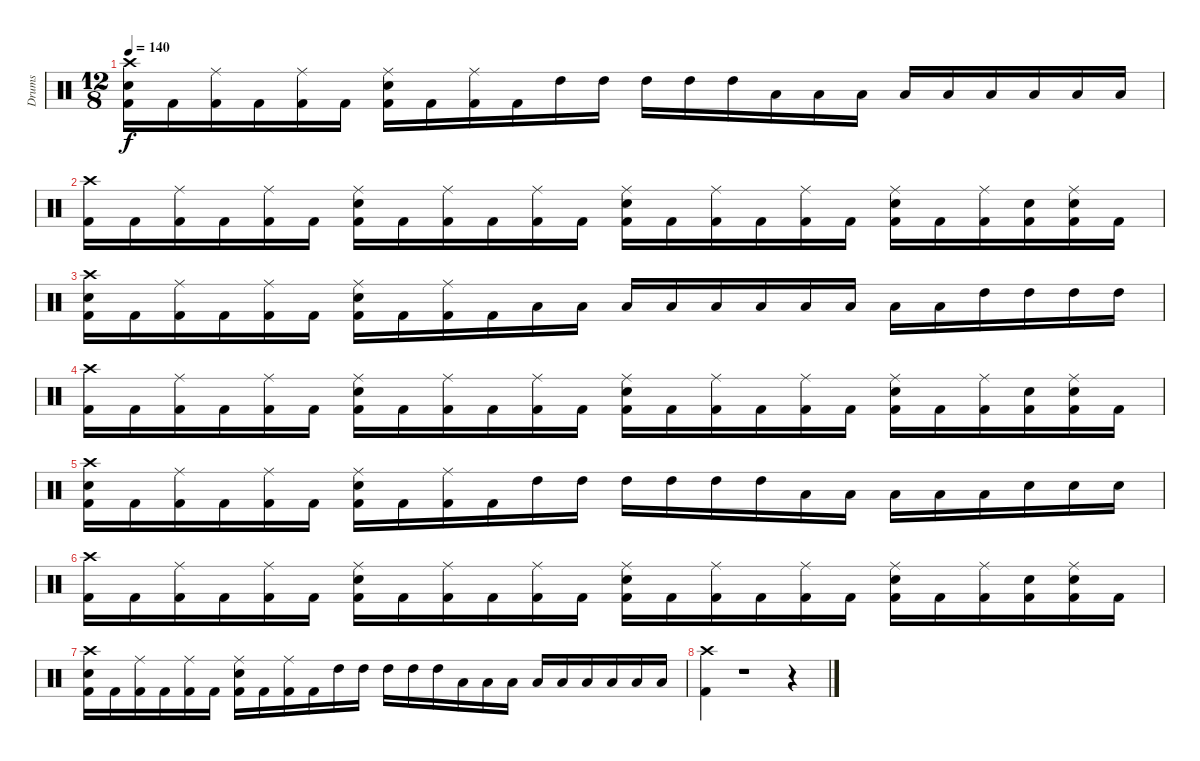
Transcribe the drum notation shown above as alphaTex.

\track ("Drums" "Drums") {instrument percussion}
\staff {score}
\articulation defaults
\ts (12 8)
\tempo 140
\clef neutral
\ks c
("Crash high (hit)" "Kick (hit) 2" "Snare (hit) 2").16{dy f} "Kick (hit) 2".16 ("Kick (hit) 2" "Ride (middle)").16 "Kick (hit) 2".16 ("Ride (middle)" "Kick (hit) 2").16 "Kick (hit) 2".16 ("Ride (middle)" "Snare (hit) 2" "Kick (hit) 2").16 "Kick (hit) 2".16 ("Kick (hit) 2" "Ride (middle)").16 "Kick (hit) 2".16 "High Tom (hit)".16 "High Tom (hit)".16 "High Tom (hit)".16 "High Tom (hit)".16 "High Tom (hit)".16 "Low Tom (hit)".16 "Low Tom (hit)".16 "Low Tom (hit)".16 "Low Tom (hit)".16 "Low Tom (hit)".16 "Low Tom (hit)".16 "Low Floor Tom (hit)".16 "Low Floor Tom (hit)".16 "Low Floor Tom (hit)".16 |
("Crash high (hit)" "Kick (hit) 2").16 "Kick (hit) 2".16 ("Kick (hit) 2" "Ride (middle)").16 "Kick (hit) 2".16 ("Kick (hit) 2" "Ride (middle)").16 "Kick (hit) 2".16 ("Ride (middle)" "Kick (hit) 2" "Snare (hit) 2").16 "Kick (hit) 2".16 ("Ride (middle)" "Kick (hit) 2").16 "Kick (hit) 2".16 ("Kick (hit) 2" "Ride (middle)").16 "Kick (hit) 2".16 ("Ride (middle)" "Kick (hit) 2" "Snare (hit) 2").16 "Kick (hit) 2".16 ("Ride (middle)" "Kick (hit) 2").16 "Kick (hit) 2".16 ("Kick (hit) 2" "Ride (middle)").16 "Kick (hit) 2".16 ("Ride (middle)" "Kick (hit) 2" "Snare (hit) 2").16 "Kick (hit) 2".16 ("Ride (middle)" "Kick (hit) 2").16 ("Kick (hit) 2" "Snare (hit) 2").16 ("Snare (hit) 2" "Kick (hit) 2" "Ride (middle)").16 "Kick (hit) 2".16 |
("Crash high (hit)" "Kick (hit) 2" "Snare (hit) 2").16 "Kick (hit) 2".16 ("Kick (hit) 2" "Ride (middle)").16 "Kick (hit) 2".16 ("Ride (middle)" "Kick (hit) 2").16 "Kick (hit) 2".16 ("Ride (middle)" "Snare (hit) 2" "Kick (hit) 2").16 "Kick (hit) 2".16 ("Kick (hit) 2" "Ride (middle)").16 "Kick (hit) 2".16 "Low Floor Tom (hit)".16 "Low Floor Tom (hit)".16 "Low Floor Tom (hit)".16 "Low Floor Tom (hit)".16 "Low Floor Tom (hit)".16 "Low Tom (hit)".16 "Low Tom (hit)".16 "Low Tom (hit)".16 "Low Tom (hit)".16 "Low Tom (hit)".16 "High Tom (hit)".16 "High Tom (hit)".16 "High Tom (hit)".16 "High Tom (hit)".16 |
("Crash high (hit)" "Kick (hit) 2").16 "Kick (hit) 2".16 ("Kick (hit) 2" "Ride (middle)").16 "Kick (hit) 2".16 ("Kick (hit) 2" "Ride (middle)").16 "Kick (hit) 2".16 ("Ride (middle)" "Kick (hit) 2" "Snare (hit) 2").16 "Kick (hit) 2".16 ("Ride (middle)" "Kick (hit) 2").16 "Kick (hit) 2".16 ("Kick (hit) 2" "Ride (middle)").16 "Kick (hit) 2".16 ("Ride (middle)" "Kick (hit) 2" "Snare (hit) 2").16 "Kick (hit) 2".16 ("Ride (middle)" "Kick (hit) 2").16 "Kick (hit) 2".16 ("Kick (hit) 2" "Ride (middle)").16 "Kick (hit) 2".16 ("Ride (middle)" "Kick (hit) 2" "Snare (hit) 2").16 "Kick (hit) 2".16 ("Ride (middle)" "Kick (hit) 2").16 ("Kick (hit) 2" "Snare (hit) 2").16 ("Snare (hit) 2" "Kick (hit) 2" "Ride (middle)").16 "Kick (hit) 2".16 |
("Crash high (hit)" "Kick (hit) 2" "Snare (hit) 2").16 "Kick (hit) 2".16 ("Kick (hit) 2" "Ride (middle)").16 "Kick (hit) 2".16 ("Ride (middle)" "Kick (hit) 2").16 "Kick (hit) 2".16 ("Ride (middle)" "Snare (hit) 2" "Kick (hit) 2").16 "Kick (hit) 2".16 ("Kick (hit) 2" "Ride (middle)").16 "Kick (hit) 2".16 "High Tom (hit)".16 "High Tom (hit)".16 "High Tom (hit)".16 "High Tom (hit)".16 "High Tom (hit)".16 "High Tom (hit)".16 "Low Floor Tom (hit)".16 "Low Floor Tom (hit)".16 "Low Floor Tom (hit)".16 "Low Floor Tom (hit)".16 "Low Floor Tom (hit)".16 "Snare (hit) 2".16 "Snare (hit) 2".16 "Snare (hit) 2".16 |
("Crash high (hit)" "Kick (hit) 2").16 "Kick (hit) 2".16 ("Kick (hit) 2" "Ride (middle)").16 "Kick (hit) 2".16 ("Kick (hit) 2" "Ride (middle)").16 "Kick (hit) 2".16 ("Ride (middle)" "Kick (hit) 2" "Snare (hit) 2").16 "Kick (hit) 2".16 ("Ride (middle)" "Kick (hit) 2").16 "Kick (hit) 2".16 ("Kick (hit) 2" "Ride (middle)").16 "Kick (hit) 2".16 ("Ride (middle)" "Kick (hit) 2" "Snare (hit) 2").16 "Kick (hit) 2".16 ("Ride (middle)" "Kick (hit) 2").16 "Kick (hit) 2".16 ("Kick (hit) 2" "Ride (middle)").16 "Kick (hit) 2".16 ("Ride (middle)" "Kick (hit) 2" "Snare (hit) 2").16 "Kick (hit) 2".16 ("Ride (middle)" "Kick (hit) 2").16 ("Kick (hit) 2" "Snare (hit) 2").16 ("Snare (hit) 2" "Kick (hit) 2" "Ride (middle)").16 "Kick (hit) 2".16 |
("Crash high (hit)" "Kick (hit) 2" "Snare (hit) 2").16 "Kick (hit) 2".16 ("Kick (hit) 2" "Ride (middle)").16 "Kick (hit) 2".16 ("Ride (middle)" "Kick (hit) 2").16 "Kick (hit) 2".16 ("Ride (middle)" "Snare (hit) 2" "Kick (hit) 2").16 "Kick (hit) 2".16 ("Kick (hit) 2" "Ride (middle)").16 "Kick (hit) 2".16 "High Tom (hit)".16 "High Tom (hit)".16 "High Tom (hit)".16 "High Tom (hit)".16 "High Tom (hit)".16 "Low Tom (hit)".16 "Low Tom (hit)".16 "Low Tom (hit)".16 "Low Tom (hit)".16 "Low Tom (hit)".16 "Low Tom (hit)".16 "Low Floor Tom (hit)".16 "Low Floor Tom (hit)".16 "Low Floor Tom (hit)".16 |
("Kick (hit) 2" "Crash high (hit)").4 r.1 r.4
